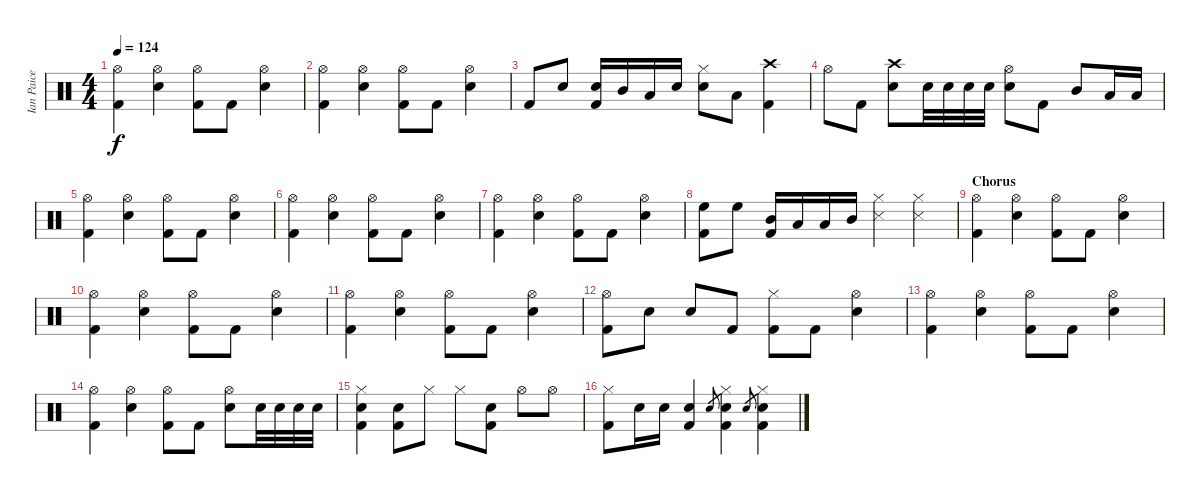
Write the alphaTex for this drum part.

\track ("Ian Paice (drum)" "Ian Paice ") {instrument percussion}
\staff {score}
\articulation defaults
\ts (4 4)
\tempo 124
\clef neutral
\ks c
("Hi-Hat (open)" "Kick (hit) 2").4{dy f} ("Snare (hit) 2" "Hi-Hat (open)").4 ("Hi-Hat (open)" "Kick (hit) 2").8 "Kick (hit) 2".8 ("Snare (hit) 2" "Hi-Hat (open)").4 |
("Hi-Hat (open)" "Kick (hit) 2").4 ("Snare (hit) 2" "Hi-Hat (open)").4 ("Hi-Hat (open)" "Kick (hit) 2").8 "Kick (hit) 2".8 ("Snare (hit) 2" "Hi-Hat (open)").4 |
"Kick (hit) 2".8 "Snare (hit) 2".8 ("Snare (hit) 2" "Kick (hit) 2").16 "Mid Tom (hit)".16 "Low Tom (hit)".16 "Snare (hit) 2".16 ("Snare (hit) 2" "Hi-Hat (closed)").8 "Low Floor Tom (hit)".8 ("Crash high (hit)" "Kick (hit) 2").4 |
"Hi-Hat (open)".8 "Kick (hit) 2".8 ("Crash high (hit)" "Snare (hit) 2").8 "Snare (hit) 2".32 "Snare (hit) 2".32 "Snare (hit) 2".32 "Snare (hit) 2".32 ("Snare (hit) 2" "Hi-Hat (open)").8 "Kick (hit) 2".8 "Mid Tom (hit)".8 "Low Tom (hit)".16 "Low Floor Tom (hit)".16 |
("Hi-Hat (open)" "Kick (hit) 2").4 ("Snare (hit) 2" "Hi-Hat (open)").4 ("Hi-Hat (open)" "Kick (hit) 2").8 "Kick (hit) 2".8 ("Snare (hit) 2" "Hi-Hat (open)").4 |
("Hi-Hat (open)" "Kick (hit) 2").4 ("Snare (hit) 2" "Hi-Hat (open)").4 ("Hi-Hat (open)" "Kick (hit) 2").8 "Kick (hit) 2".8 ("Snare (hit) 2" "Hi-Hat (open)").4 |
("Hi-Hat (open)" "Kick (hit) 2").4 ("Snare (hit) 2" "Hi-Hat (open)").4 ("Hi-Hat (open)" "Kick (hit) 2").8 "Kick (hit) 2".8 ("Snare (hit) 2" "Hi-Hat (open)").4 |
("High Floor Tom (hit)" "Kick (hit) 2").8 "High Floor Tom (hit)".8 ("Mid Tom (hit)" "Kick (hit) 2").16 "Low Tom (hit)".16 "Low Floor Tom (hit)".16 "Mid Tom (hit)".16 ("Snare (side stick) 3" "Hi-Hat (closed)").4 ("Snare (side stick) 3" "Hi-Hat (closed)").4 |
\section ("" "Chorus")
("Hi-Hat (open)" "Kick (hit) 2").4 ("Snare (hit) 2" "Hi-Hat (open)").4 ("Hi-Hat (open)" "Kick (hit) 2").8 "Kick (hit) 2".8 ("Snare (hit) 2" "Hi-Hat (open)").4 |
("Hi-Hat (open)" "Kick (hit) 2").4 ("Snare (hit) 2" "Hi-Hat (open)").4 ("Hi-Hat (open)" "Kick (hit) 2").8 "Kick (hit) 2".8 ("Snare (hit) 2" "Hi-Hat (open)").4 |
("Hi-Hat (open)" "Kick (hit) 2").4 ("Snare (hit) 2" "Hi-Hat (open)").4 ("Hi-Hat (open)" "Kick (hit) 2").8 "Kick (hit) 2".8 ("Snare (hit) 2" "Hi-Hat (open)").4 |
("Hi-Hat (open)" "Kick (hit) 2").8 "Snare (hit) 2".8 "Snare (hit) 2".8 "Kick (hit) 2".8 ("Hi-Hat (closed)" "Kick (hit) 2").8 "Kick (hit) 2".8 ("Snare (hit) 2" "Hi-Hat (open)").4 |
("Hi-Hat (open)" "Kick (hit) 2").4 ("Snare (hit) 2" "Hi-Hat (open)").4 ("Hi-Hat (open)" "Kick (hit) 2").8 "Kick (hit) 2".8 ("Snare (hit) 2" "Hi-Hat (open)").4 |
("Hi-Hat (open)" "Kick (hit) 2").4 ("Snare (hit) 2" "Hi-Hat (open)").4 ("Hi-Hat (open)" "Kick (hit) 2").8 "Kick (hit) 2".8 ("Snare (hit) 2" "Hi-Hat (open)").8 "Snare (hit) 2".32 "Snare (hit) 2".32 "Snare (hit) 2".32 "Snare (hit) 2".32 |
("Hi-Hat (closed)" "Snare (hit) 2" "Kick (hit) 2").4 ("Snare (hit) 2" "Kick (hit) 2").8 "Hi-Hat (closed)".8 "Hi-Hat (closed)".8 ("Snare (hit) 2" "Kick (hit) 2").8 "Hi-Hat (open)".8 "Hi-Hat (open)".8 |
("Hi-Hat (closed)" "Kick (hit) 2").8 "Snare (hit) 2".16 "Snare (hit) 2".16 ("Snare (hit) 2" "Kick (hit) 2").4 "Snare (hit) 2".8{gr} ("Hi-Hat (closed)" "Snare (hit) 2" "Kick (hit) 2").4 "Snare (hit) 2".8{gr} ("Hi-Hat (closed)" "Snare (hit) 2" "Kick (hit) 2").4
